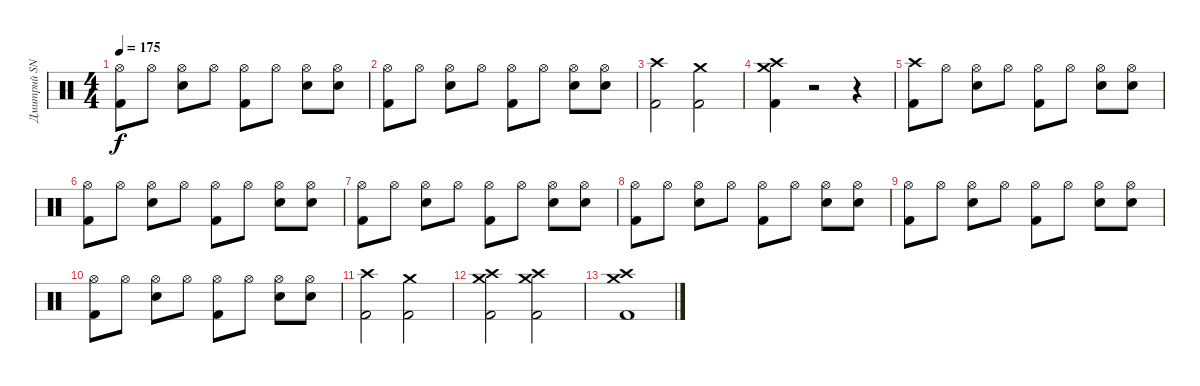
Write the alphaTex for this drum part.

\track ("Дмитрий SNAKE Хакимов" "Дмитрий SN") {instrument percussion}
\staff {score}
\articulation defaults
\ts (4 4)
\tempo 175
\clef neutral
\ks c
("Hi-Hat (open)" "Kick (hit) 2").8{dy f} "Hi-Hat (open)".8 ("Hi-Hat (open)" "Snare (hit) 2").8 "Hi-Hat (open)".8 ("Hi-Hat (open)" "Kick (hit) 2").8 "Hi-Hat (open)".8 ("Hi-Hat (open)" "Snare (hit) 2").8 ("Hi-Hat (open)" "Snare (hit) 2").8 |
("Hi-Hat (open)" "Kick (hit) 2").8 "Hi-Hat (open)".8 ("Hi-Hat (open)" "Snare (hit) 2").8 "Hi-Hat (open)".8 ("Hi-Hat (open)" "Kick (hit) 2").8 "Hi-Hat (open)".8 ("Hi-Hat (open)" "Snare (hit) 2").8 ("Hi-Hat (open)" "Snare (hit) 2").8 |
("Crash high (hit)" "Kick (hit) 2").2 ("Crash medium (hit)" "Kick (hit) 2").2 |
("Crash high (hit)" "Crash medium (hit)" "Kick (hit) 2").4 r.2 r.4 |
("Crash high (hit)" "Kick (hit) 2").8 "Hi-Hat (open)".8 ("Hi-Hat (open)" "Snare (hit) 2").8 "Hi-Hat (open)".8 ("Hi-Hat (open)" "Kick (hit) 2").8 "Hi-Hat (open)".8 ("Hi-Hat (open)" "Snare (hit) 2").8 ("Hi-Hat (open)" "Snare (hit) 2").8 |
("Hi-Hat (open)" "Kick (hit) 2").8 "Hi-Hat (open)".8 ("Hi-Hat (open)" "Snare (hit) 2").8 "Hi-Hat (open)".8 ("Hi-Hat (open)" "Kick (hit) 2").8 "Hi-Hat (open)".8 ("Hi-Hat (open)" "Snare (hit) 2").8 ("Hi-Hat (open)" "Snare (hit) 2").8 |
("Hi-Hat (open)" "Kick (hit) 2").8 "Hi-Hat (open)".8 ("Hi-Hat (open)" "Snare (hit) 2").8 "Hi-Hat (open)".8 ("Hi-Hat (open)" "Kick (hit) 2").8 "Hi-Hat (open)".8 ("Hi-Hat (open)" "Snare (hit) 2").8 ("Hi-Hat (open)" "Snare (hit) 2").8 |
("Hi-Hat (open)" "Kick (hit) 2").8 "Hi-Hat (open)".8 ("Hi-Hat (open)" "Snare (hit) 2").8 "Hi-Hat (open)".8 ("Hi-Hat (open)" "Kick (hit) 2").8 "Hi-Hat (open)".8 ("Hi-Hat (open)" "Snare (hit) 2").8 ("Hi-Hat (open)" "Snare (hit) 2").8 |
("Hi-Hat (open)" "Kick (hit) 2").8 "Hi-Hat (open)".8 ("Hi-Hat (open)" "Snare (hit) 2").8 "Hi-Hat (open)".8 ("Hi-Hat (open)" "Kick (hit) 2").8 "Hi-Hat (open)".8 ("Hi-Hat (open)" "Snare (hit) 2").8 ("Hi-Hat (open)" "Snare (hit) 2").8 |
("Hi-Hat (open)" "Kick (hit) 2").8 "Hi-Hat (open)".8 ("Hi-Hat (open)" "Snare (hit) 2").8 "Hi-Hat (open)".8 ("Hi-Hat (open)" "Kick (hit) 2").8 "Hi-Hat (open)".8 ("Hi-Hat (open)" "Snare (hit) 2").8 ("Hi-Hat (open)" "Snare (hit) 2").8 |
("Crash high (hit)" "Kick (hit) 2").2 ("Crash medium (hit)" "Kick (hit) 2").2 |
("Crash high (hit)" "Crash medium (hit)" "Kick (hit) 2").2 ("Crash high (hit)" "Crash medium (hit)" "Kick (hit) 2").2 |
("Crash high (hit)" "Crash medium (hit)" "Kick (hit) 2").1
